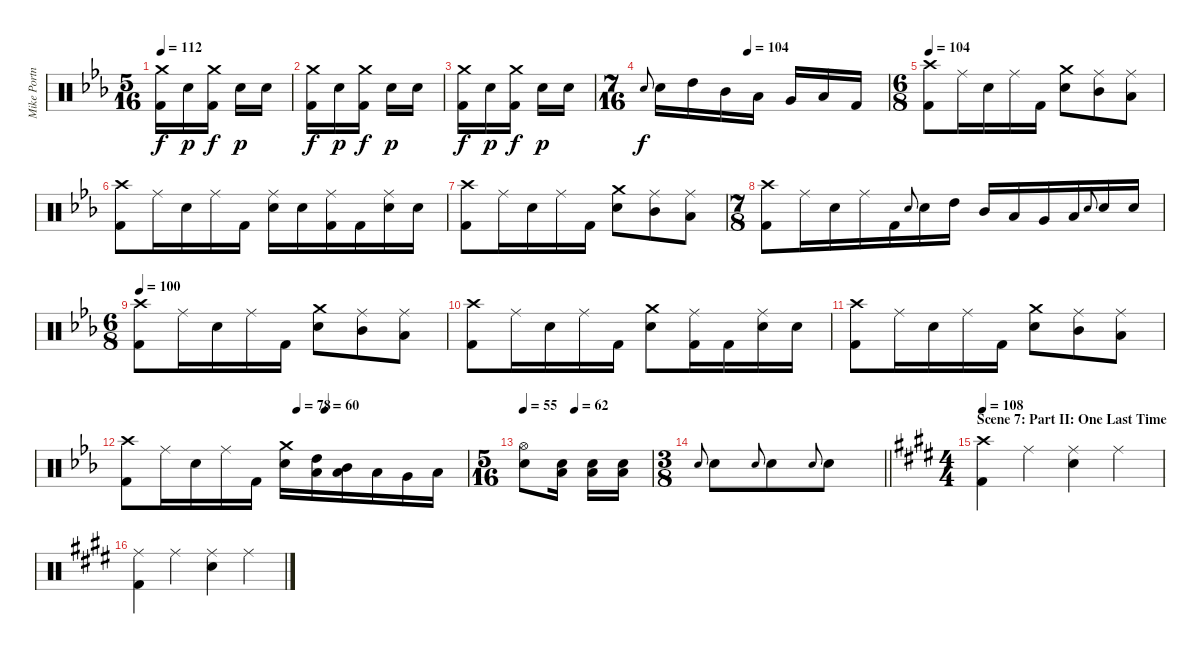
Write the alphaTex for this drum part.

\track ("Mike Portnoy" "Mike Portn") {instrument percussion}
\staff {score}
\articulation defaults
\ts (5 16)
\tempo 112
\clef neutral
\ks eb
("Crash medium (hit)" "Kick (hit) 2").16{dy f} "Snare (hit) 2".16{dy p} ("Crash medium (hit)" "Kick (hit) 2").16{dy f} "Snare (hit) 2".16{dy p} "Snare (hit) 2".16 |
("Crash medium (hit)" "Kick (hit) 2").16{dy f} "Snare (hit) 2".16{dy p} ("Crash medium (hit)" "Kick (hit) 2").16{dy f} "Snare (hit) 2".16{dy p} "Snare (hit) 2".16 |
("Crash medium (hit)" "Kick (hit) 2").16{dy f} "Snare (hit) 2".16{dy p} ("Crash medium (hit)" "Kick (hit) 2").16{dy f} "Snare (hit) 2".16{dy p} "Snare (hit) 2".16 |
\ts (7 16)
\tempo (104 0.42857142857142855)
"Snare (hit) 2".8{gr onbeat dy f} "Snare (hit) 2".16 "High Tom (hit)".16 "Mid Tom (hit)".16 "Low Tom (hit)".16 "Very Low Tom (hit)".16 "Low Floor Tom (hit)".16 "Kick (hit) 2".16 |
\ts (6 8)
\tempo 104
("Crash high (hit)" "Kick (hit) 2").8 "Ride (middle)".16 "Snare (hit) 2".16 "Ride (middle)".16 "Kick (hit) 2".16 ("Crash medium (hit)" "Snare (hit) 2").8 ("Ride (middle)" "Mid Tom (hit)").8 ("Ride (middle)" "Low Tom (hit)").8 |
("Crash high (hit)" "Kick (hit) 2").8 "Ride (middle)".16 "Snare (hit) 2".16 "Ride (middle)".16 "Kick (hit) 2".16 ("Ride (middle)" "Snare (hit) 2").16 "Snare (hit) 2".16 ("Ride (middle)" "Kick (hit) 2").16 "Kick (hit) 2".16 ("Ride (middle)" "Snare (hit) 2").16 "Snare (hit) 2".16 |
("Crash high (hit)" "Kick (hit) 2").8 "Ride (middle)".16 "Snare (hit) 2".16 "Ride (middle)".16 "Kick (hit) 2".16 ("Crash medium (hit)" "Snare (hit) 2").8 ("Ride (middle)" "Mid Tom (hit)").8 ("Ride (middle)" "Low Tom (hit)").8 |
\ts (7 8)
("Crash high (hit)" "Kick (hit) 2").8 "Ride (middle)".16 "Snare (hit) 2".16 "Ride (middle)".16 "Kick (hit) 2".16 "Snare (hit) 2".8{gr onbeat} "Snare (hit) 2".16 "High Tom (hit)".16 "Mid Tom (hit)".16 "Low Tom (hit)".16 "Very Low Tom (hit)".16 "Low Floor Tom (hit)".16 "Snare (hit) 2".8{gr onbeat} "Snare (hit) 2".16 "Snare (hit) 2".16 |
\ts (6 8)
\tempo 100
("Crash high (hit)" "Kick (hit) 2").8 "Ride (middle)".16 "Snare (hit) 2".16 "Ride (middle)".16 "Kick (hit) 2".16 ("Crash medium (hit)" "Snare (hit) 2").8 ("Ride (middle)" "Mid Tom (hit)").8 ("Ride (middle)" "Low Tom (hit)").8 |
("Crash high (hit)" "Kick (hit) 2").8 "Ride (middle)".16 "Snare (hit) 2".16 "Ride (middle)".16 "Kick (hit) 2".16 ("Crash medium (hit)" "Snare (hit) 2").8 ("Ride (middle)" "Kick (hit) 2").16 "Kick (hit) 2".16 ("Ride (middle)" "Snare (hit) 2").16 "Snare (hit) 2".16 |
("Crash high (hit)" "Kick (hit) 2").8 "Ride (middle)".16 "Snare (hit) 2".16 "Ride (middle)".16 "Kick (hit) 2".16 ("Crash medium (hit)" "Snare (hit) 2").8 ("Ride (middle)" "Mid Tom (hit)").8 ("Ride (middle)" "Low Tom (hit)").8 |
\tempo (78 0.5)
\tempo (60 0.5833333333333334)
("Crash high (hit)" "Kick (hit) 2").8 "Ride (middle)".16 "Snare (hit) 2".16 "Ride (middle)".16 "Kick (hit) 2".16 ("Crash medium (hit)" "Snare (hit) 2").16 ("High Tom (hit)" "Low Tom (hit)").16 ("Mid Tom (hit)" "Low Tom (hit)").16 "Low Tom (hit)".16 "Very Low Tom (hit)".16 "Low Floor Tom (hit)".16 |
\ts (5 16)
\tempo 55
\tempo (62 0.4)
("Hi-Hat (open)" "Snare (hit) 2").8 ("Snare (hit) 2" "Low Tom (hit)").16 ("Snare (hit) 2" "Low Tom (hit)").16 ("Snare (hit) 2" "Low Tom (hit)").16 |
\ts (3 8)
\barLineRight lightlight "Snare (hit) 2".8{gr onbeat} "Snare (hit) 2".8 "Snare (hit) 2".8{gr onbeat} "Snare (hit) 2".8 "Snare (hit) 2".8{gr onbeat} "Snare (hit) 2".8
|
\ts (4 4)
\section ("" "Scene 7: Part II: One Last Time")
\tempo 108
\ks c#minor
("Crash high (hit)" "Kick (hit) 2").4{volume 16} "Ride (middle)".4 ("Ride (middle)" "Snare (hit) 2").4 "Ride (middle)".4 |
("Ride (middle)" "Kick (hit) 2").4 "Ride (middle)".4 ("Ride (middle)" "Snare (hit) 2").4 "Ride (middle)".4
